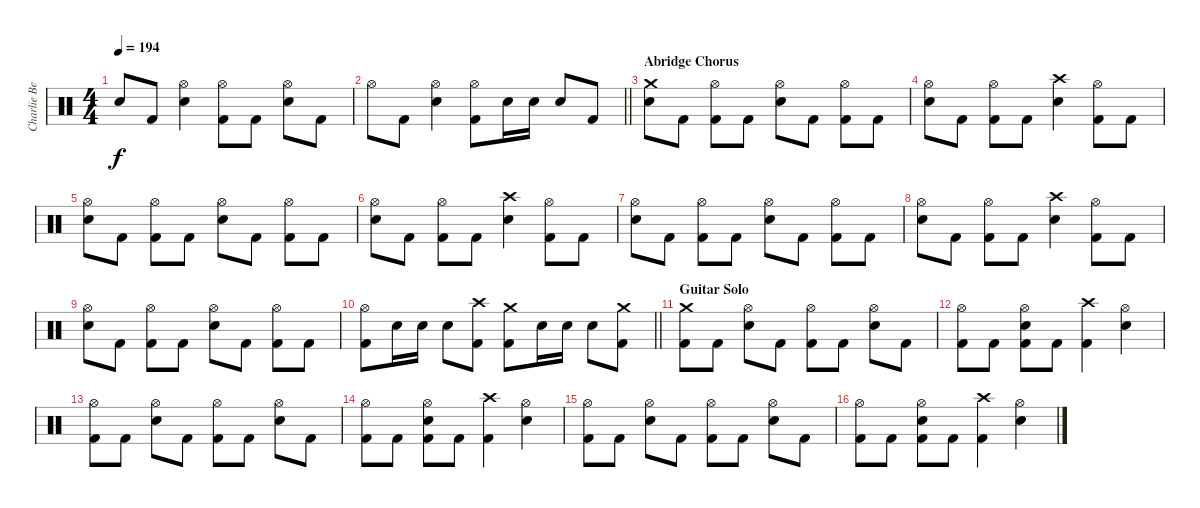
\track ("Charlie Benate " "Charlie Be") {instrument percussion}
\staff {score}
\articulation defaults
\ts (4 4)
\tempo 194
\clef neutral
\ks c "Snare (hit)"{t}.8{dy f} "Kick (hit) 2".8
("Hi-Hat (open)" "Snare (hit) 2").4 ("Hi-Hat (open)" "Kick (hit) 2").8 "Kick (hit) 2".8 ("Hi-Hat (open)" "Snare (hit) 2").8 "Kick (hit) 2".8 |
\barLineRight lightlight "Hi-Hat (open)".8 "Kick (hit) 2".8
("Hi-Hat (open)" "Snare (hit) 2").4 ("Hi-Hat (open)" "Kick (hit) 2").8 "Snare (hit) 2".16 "Snare (hit) 2".16 "Snare (hit) 2".8 "Kick (hit) 2".8 |
\section ("" "Abridge Chorus")
("Crash medium (hit)" "Snare (hit) 2").8 "Kick (hit) 2".8 ("Hi-Hat (open)" "Kick (hit) 2").8 "Kick (hit) 2".8 ("Hi-Hat (open)" "Snare (hit) 2").8 "Kick (hit) 2".8 ("Hi-Hat (open)" "Kick (hit) 2").8 "Kick (hit) 2".8 |
("Hi-Hat (open)" "Snare (hit) 2").8 "Kick (hit) 2".8 ("Hi-Hat (open)" "Kick (hit) 2").8 "Kick (hit) 2".8 ("Crash high (hit)" "Snare (hit) 2").4 ("Hi-Hat (open)" "Kick (hit) 2").8 "Kick (hit) 2".8 |
("Hi-Hat (open)" "Snare (hit) 2").8 "Kick (hit) 2".8 ("Hi-Hat (open)" "Kick (hit) 2").8 "Kick (hit) 2".8 ("Hi-Hat (open)" "Snare (hit) 2").8 "Kick (hit) 2".8 ("Hi-Hat (open)" "Kick (hit) 2").8 "Kick (hit) 2".8 |
("Hi-Hat (open)" "Snare (hit) 2").8 "Kick (hit) 2".8 ("Hi-Hat (open)" "Kick (hit) 2").8 "Kick (hit) 2".8 ("Crash high (hit)" "Snare (hit) 2").4 ("Hi-Hat (open)" "Kick (hit) 2").8 "Kick (hit) 2".8 |
("Hi-Hat (open)" "Snare (hit) 2").8 "Kick (hit) 2".8 ("Hi-Hat (open)" "Kick (hit) 2").8 "Kick (hit) 2".8 ("Hi-Hat (open)" "Snare (hit) 2").8 "Kick (hit) 2".8 ("Hi-Hat (open)" "Kick (hit) 2").8 "Kick (hit) 2".8 |
("Hi-Hat (open)" "Snare (hit) 2").8 "Kick (hit) 2".8 ("Hi-Hat (open)" "Kick (hit) 2").8 "Kick (hit) 2".8 ("Crash high (hit)" "Snare (hit) 2").4 ("Hi-Hat (open)" "Kick (hit) 2").8 "Kick (hit) 2".8 |
("Hi-Hat (open)" "Snare (hit) 2").8 "Kick (hit) 2".8 ("Hi-Hat (open)" "Kick (hit) 2").8 "Kick (hit) 2".8 ("Hi-Hat (open)" "Snare (hit) 2").8 "Kick (hit) 2".8 ("Hi-Hat (open)" "Kick (hit) 2").8 "Kick (hit) 2".8 |
\barLineRight lightlight
("Hi-Hat (open)" "Kick (hit) 2").8 "Snare (hit) 2".16 "Snare (hit) 2".16 "Snare (hit) 2".8 ("Crash high (hit)" "Kick (hit) 2").8 ("Crash medium (hit)" "Kick (hit) 2").8 "Snare (hit) 2".16 "Snare (hit) 2".16 "Snare (hit) 2".8 ("Crash medium (hit)" "Kick (hit) 2").8 |
\section ("" "Guitar Solo")
("Crash medium (hit)" "Kick (hit) 2").8 "Kick (hit) 2".8 ("Hi-Hat (open)" "Snare (hit) 2").8 "Kick (hit) 2".8 ("Hi-Hat (open)" "Kick (hit) 2").8 "Kick (hit) 2".8 ("Hi-Hat (open)" "Snare (hit) 2").8 "Kick (hit) 2".8 |
("Hi-Hat (open)" "Kick (hit) 2").8 "Kick (hit) 2".8 ("Hi-Hat (open)" "Snare (hit) 2" "Kick (hit) 2").8 "Kick (hit) 2".8 ("Crash high (hit)" "Kick (hit) 2").4 ("Hi-Hat (open)" "Snare (hit) 2").4 |
("Hi-Hat (open)" "Kick (hit) 2").8 "Kick (hit) 2".8 ("Hi-Hat (open)" "Snare (hit) 2").8 "Kick (hit) 2".8 ("Hi-Hat (open)" "Kick (hit) 2").8 "Kick (hit) 2".8 ("Hi-Hat (open)" "Snare (hit) 2").8 "Kick (hit) 2".8 |
("Hi-Hat (open)" "Kick (hit) 2").8 "Kick (hit) 2".8 ("Hi-Hat (open)" "Snare (hit) 2" "Kick (hit) 2").8 "Kick (hit) 2".8 ("Crash high (hit)" "Kick (hit) 2").4 ("Hi-Hat (open)" "Snare (hit) 2").4 |
("Hi-Hat (open)" "Kick (hit) 2").8 "Kick (hit) 2".8 ("Hi-Hat (open)" "Snare (hit) 2").8 "Kick (hit) 2".8 ("Hi-Hat (open)" "Kick (hit) 2").8 "Kick (hit) 2".8 ("Hi-Hat (open)" "Snare (hit) 2").8 "Kick (hit) 2".8 |
("Hi-Hat (open)" "Kick (hit) 2").8 "Kick (hit) 2".8 ("Hi-Hat (open)" "Snare (hit) 2" "Kick (hit) 2").8 "Kick (hit) 2".8 ("Crash high (hit)" "Kick (hit) 2").4 ("Hi-Hat (open)" "Snare (hit) 2").4
